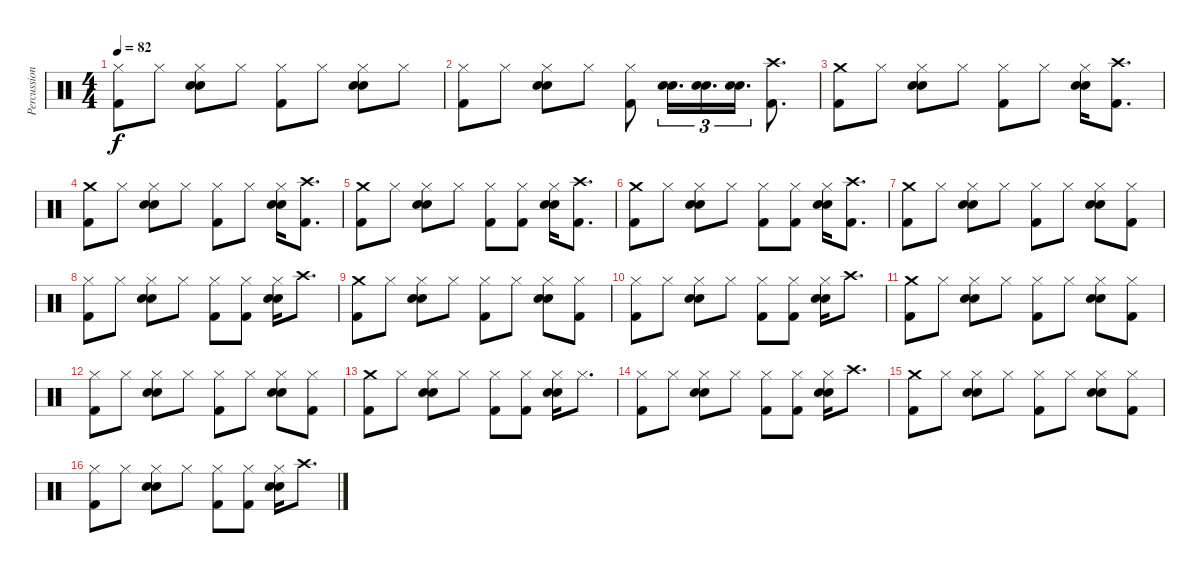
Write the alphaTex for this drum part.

\track ("Percussion" "Percussion") {instrument percussion}
\staff {score}
\articulation defaults
\ts (4 4)
\tempo 82
\clef neutral
\ks c
("Hi-Hat (closed)" "Kick (hit) 2").8{dy f} "Hi-Hat (closed)".8 ("Hi-Hat (closed)" "Snare (hit) 2" "Electric Snare (hit)").8 "Hi-Hat (closed)".8 ("Hi-Hat (closed)" "Kick (hit) 2").8 "Hi-Hat (closed)".8 ("Hi-Hat (closed)" "Snare (hit) 2" "Electric Snare (hit)").8 "Hi-Hat (closed)".8 |
("Hi-Hat (closed)" "Kick (hit) 2").8 "Hi-Hat (closed)".8 ("Hi-Hat (closed)" "Snare (hit) 2" "Electric Snare (hit)").8 "Hi-Hat (closed)".8 ("Hi-Hat (closed)" "Kick (hit) 2").8 ("Snare (hit) 2" "Electric Snare (hit)").16{d tu (3 2)} ("Snare (hit) 2" "Electric Snare (hit)").16{d tu (3 2)} ("Snare (hit) 2" "Electric Snare (hit)").16{d tu (3 2)} ("Crash high (hit)" "Kick (hit) 2").8{d} |
("Crash medium (hit)" "Kick (hit) 2").8 "Hi-Hat (closed)".8 ("Hi-Hat (closed)" "Snare (hit) 2" "Electric Snare (hit)").8 "Hi-Hat (closed)".8 ("Hi-Hat (closed)" "Kick (hit) 2").8 "Hi-Hat (closed)".8 ("Hi-Hat (closed)" "Snare (hit) 2" "Electric Snare (hit)").16 ("Crash high (hit)" "Kick (hit) 2").8{d} |
("Crash medium (hit)" "Kick (hit) 2").8 "Hi-Hat (closed)".8 ("Hi-Hat (closed)" "Snare (hit) 2" "Electric Snare (hit)").8 "Hi-Hat (closed)".8 ("Hi-Hat (closed)" "Kick (hit) 2").8 "Hi-Hat (closed)".8 ("Hi-Hat (closed)" "Snare (hit) 2" "Electric Snare (hit)").16 ("Crash high (hit)" "Kick (hit) 2").8{d} |
("Crash medium (hit)" "Kick (hit) 2").8 "Hi-Hat (closed)".8 ("Hi-Hat (closed)" "Snare (hit) 2" "Electric Snare (hit)").8 "Hi-Hat (closed)".8 ("Hi-Hat (closed)" "Kick (hit) 2").8 ("Hi-Hat (closed)" "Kick (hit) 2").8 ("Hi-Hat (closed)" "Snare (hit) 2" "Electric Snare (hit)").16 ("Crash high (hit)" "Kick (hit) 2").8{d} |
("Crash medium (hit)" "Kick (hit) 2").8 "Hi-Hat (closed)".8 ("Hi-Hat (closed)" "Snare (hit) 2" "Electric Snare (hit)").8 "Hi-Hat (closed)".8 ("Hi-Hat (closed)" "Kick (hit) 2").8 ("Hi-Hat (closed)" "Kick (hit) 2").8 ("Hi-Hat (closed)" "Snare (hit) 2" "Electric Snare (hit)").16 ("Crash high (hit)" "Kick (hit) 2").8{d} |
("Crash medium (hit)" "Kick (hit) 2").8 "Hi-Hat (closed)".8 ("Hi-Hat (closed)" "Snare (hit) 2" "Electric Snare (hit)").8 "Hi-Hat (closed)".8 ("Hi-Hat (closed)" "Kick (hit) 2").8 "Hi-Hat (closed)".8 ("Hi-Hat (closed)" "Snare (hit) 2" "Electric Snare (hit)").8 ("Hi-Hat (closed)" "Kick (hit) 2").8 |
("Hi-Hat (closed)" "Kick (hit) 2").8 "Hi-Hat (closed)".8 ("Hi-Hat (closed)" "Snare (hit) 2" "Electric Snare (hit)").8 "Hi-Hat (closed)".8 ("Hi-Hat (closed)" "Kick (hit) 2").8 ("Hi-Hat (closed)" "Kick (hit) 2").8 ("Hi-Hat (closed)" "Snare (hit) 2" "Electric Snare (hit)").16 "Crash high (hit)".8{d} |
("Crash medium (hit)" "Kick (hit) 2").8 "Hi-Hat (closed)".8 ("Hi-Hat (closed)" "Snare (hit) 2" "Electric Snare (hit)").8 "Hi-Hat (closed)".8 ("Hi-Hat (closed)" "Kick (hit) 2").8 "Hi-Hat (closed)".8 ("Hi-Hat (closed)" "Snare (hit) 2" "Electric Snare (hit)").8 ("Hi-Hat (closed)" "Kick (hit) 2").8 |
("Hi-Hat (closed)" "Kick (hit) 2").8 "Hi-Hat (closed)".8 ("Hi-Hat (closed)" "Snare (hit) 2" "Electric Snare (hit)").8 "Hi-Hat (closed)".8 ("Hi-Hat (closed)" "Kick (hit) 2").8 ("Hi-Hat (closed)" "Kick (hit) 2").8 ("Hi-Hat (closed)" "Snare (hit) 2" "Electric Snare (hit)").16 "Crash high (hit)".8{d} |
("Crash medium (hit)" "Kick (hit) 2").8 "Hi-Hat (closed)".8 ("Hi-Hat (closed)" "Snare (hit) 2" "Electric Snare (hit)").8 "Hi-Hat (closed)".8 ("Hi-Hat (closed)" "Kick (hit) 2").8 "Hi-Hat (closed)".8 ("Hi-Hat (closed)" "Snare (hit) 2" "Electric Snare (hit)").8 ("Hi-Hat (closed)" "Kick (hit) 2").8 |
("Hi-Hat (closed)" "Kick (hit) 2").8 "Hi-Hat (closed)".8 ("Hi-Hat (closed)" "Snare (hit) 2" "Electric Snare (hit)").8 "Hi-Hat (closed)".8 ("Hi-Hat (closed)" "Kick (hit) 2").8 "Hi-Hat (closed)".8 ("Hi-Hat (closed)" "Snare (hit) 2" "Electric Snare (hit)").8 ("Hi-Hat (closed)" "Kick (hit) 2").8 |
("Crash medium (hit)" "Kick (hit) 2").8 "Hi-Hat (closed)".8 ("Hi-Hat (closed)" "Snare (hit) 2" "Electric Snare (hit)").8 "Hi-Hat (closed)".8 ("Hi-Hat (closed)" "Kick (hit) 2").8 ("Hi-Hat (closed)" "Kick (hit) 2").8 ("Hi-Hat (closed)" "Snare (hit) 2" "Electric Snare (hit)").16 "Hi-Hat (closed)".8{d} |
("Hi-Hat (closed)" "Kick (hit) 2").8 "Hi-Hat (closed)".8 ("Hi-Hat (closed)" "Snare (hit) 2" "Electric Snare (hit)").8 "Hi-Hat (closed)".8 ("Hi-Hat (closed)" "Kick (hit) 2").8 ("Hi-Hat (closed)" "Kick (hit) 2").8 ("Hi-Hat (closed)" "Snare (hit) 2" "Electric Snare (hit)").16 "Crash high (hit)".8{d} |
("Crash medium (hit)" "Kick (hit) 2").8 "Hi-Hat (closed)".8 ("Hi-Hat (closed)" "Snare (hit) 2" "Electric Snare (hit)").8 "Hi-Hat (closed)".8 ("Hi-Hat (closed)" "Kick (hit) 2").8 "Hi-Hat (closed)".8 ("Hi-Hat (closed)" "Snare (hit) 2" "Electric Snare (hit)").8 ("Hi-Hat (closed)" "Kick (hit) 2").8 |
("Hi-Hat (closed)" "Kick (hit) 2").8 "Hi-Hat (closed)".8 ("Hi-Hat (closed)" "Snare (hit) 2" "Electric Snare (hit)").8 "Hi-Hat (closed)".8 ("Hi-Hat (closed)" "Kick (hit) 2").8 ("Hi-Hat (closed)" "Kick (hit) 2").8 ("Hi-Hat (closed)" "Snare (hit) 2" "Electric Snare (hit)").16 "Crash high (hit)".8{d}
